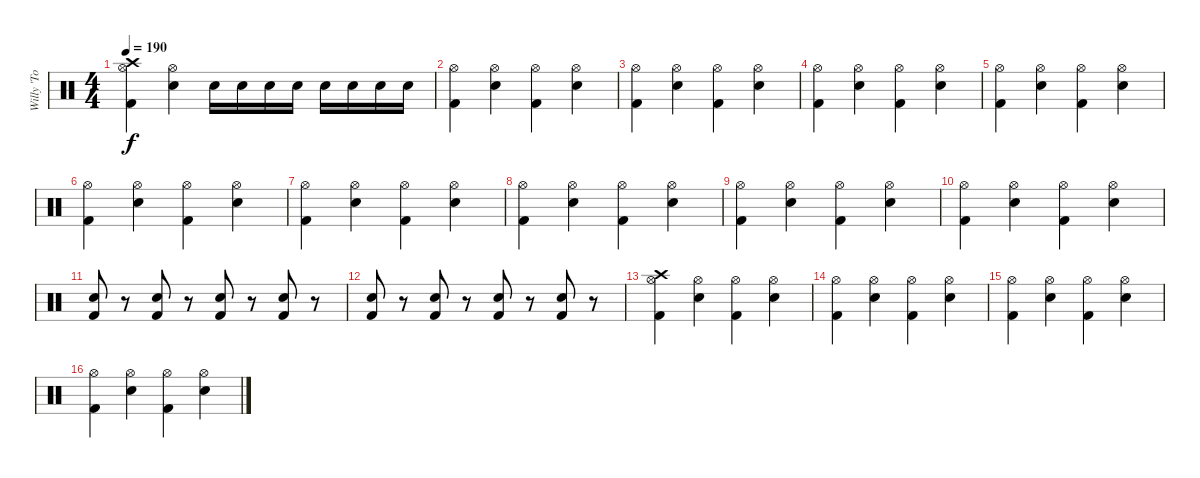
\track ("Willy 'To Big' Hall" "Willy 'To ") {instrument percussion}
\staff {score}
\articulation defaults
\ts (4 4)
\tempo 190
\clef neutral
\ks c
("Hi-Hat (open)" "Kick (hit) 2" "Crash high (hit)").4{dy f} ("Hi-Hat (open)" "Snare (hit) 2").4 "Snare (hit) 2".16 "Snare (hit) 2".16 "Snare (hit) 2".16 "Snare (hit) 2".16 "Snare (hit) 2".16 "Snare (hit) 2".16 "Snare (hit) 2".16 "Snare (hit) 2".16 |
("Hi-Hat (open)" "Kick (hit) 2").4 ("Hi-Hat (open)" "Snare (hit) 2").4 ("Hi-Hat (open)" "Kick (hit) 2").4 ("Hi-Hat (open)" "Snare (hit) 2").4 |
("Hi-Hat (open)" "Kick (hit) 2").4 ("Hi-Hat (open)" "Snare (hit) 2").4 ("Hi-Hat (open)" "Kick (hit) 2").4 ("Hi-Hat (open)" "Snare (hit) 2").4 |
("Hi-Hat (open)" "Kick (hit) 2").4 ("Hi-Hat (open)" "Snare (hit) 2").4 ("Hi-Hat (open)" "Kick (hit) 2").4 ("Hi-Hat (open)" "Snare (hit) 2").4 |
("Hi-Hat (open)" "Kick (hit) 2").4 ("Hi-Hat (open)" "Snare (hit) 2").4 ("Hi-Hat (open)" "Kick (hit) 2").4 ("Hi-Hat (open)" "Snare (hit) 2").4 |
("Hi-Hat (open)" "Kick (hit) 2").4 ("Hi-Hat (open)" "Snare (hit) 2").4 ("Hi-Hat (open)" "Kick (hit) 2").4 ("Hi-Hat (open)" "Snare (hit) 2").4 |
("Hi-Hat (open)" "Kick (hit) 2").4 ("Hi-Hat (open)" "Snare (hit) 2").4 ("Hi-Hat (open)" "Kick (hit) 2").4 ("Hi-Hat (open)" "Snare (hit) 2").4 |
("Hi-Hat (open)" "Kick (hit) 2").4 ("Hi-Hat (open)" "Snare (hit) 2").4 ("Hi-Hat (open)" "Kick (hit) 2").4 ("Hi-Hat (open)" "Snare (hit) 2").4 |
("Hi-Hat (open)" "Kick (hit) 2").4 ("Hi-Hat (open)" "Snare (hit) 2").4 ("Hi-Hat (open)" "Kick (hit) 2").4 ("Hi-Hat (open)" "Snare (hit) 2").4 |
("Hi-Hat (open)" "Kick (hit) 2").4 ("Hi-Hat (open)" "Snare (hit) 2").4 ("Hi-Hat (open)" "Kick (hit) 2").4 ("Hi-Hat (open)" "Snare (hit) 2").4 |
("Kick (hit) 2" "Snare (hit) 2").8 r.8 ("Snare (hit) 2" "Kick (hit) 2").8 r.8 ("Snare (hit) 2" "Kick (hit) 2").8 r.8 ("Snare (hit) 2" "Kick (hit) 2").8 r.8 |
("Kick (hit) 2" "Snare (hit) 2").8 r.8 ("Snare (hit) 2" "Kick (hit) 2").8 r.8 ("Snare (hit) 2" "Kick (hit) 2").8 r.8 ("Snare (hit) 2" "Kick (hit) 2").8 r.8 |
("Hi-Hat (open)" "Kick (hit) 2" "Crash high (hit)").4 ("Hi-Hat (open)" "Snare (hit) 2").4 ("Hi-Hat (open)" "Kick (hit) 2").4 ("Hi-Hat (open)" "Snare (hit) 2").4 |
("Hi-Hat (open)" "Kick (hit) 2").4 ("Hi-Hat (open)" "Snare (hit) 2").4 ("Hi-Hat (open)" "Kick (hit) 2").4 ("Hi-Hat (open)" "Snare (hit) 2").4 |
("Hi-Hat (open)" "Kick (hit) 2").4 ("Hi-Hat (open)" "Snare (hit) 2").4 ("Hi-Hat (open)" "Kick (hit) 2").4 ("Hi-Hat (open)" "Snare (hit) 2").4 |
("Hi-Hat (open)" "Kick (hit) 2").4 ("Hi-Hat (open)" "Snare (hit) 2").4 ("Hi-Hat (open)" "Kick (hit) 2").4 ("Hi-Hat (open)" "Snare (hit) 2").4
